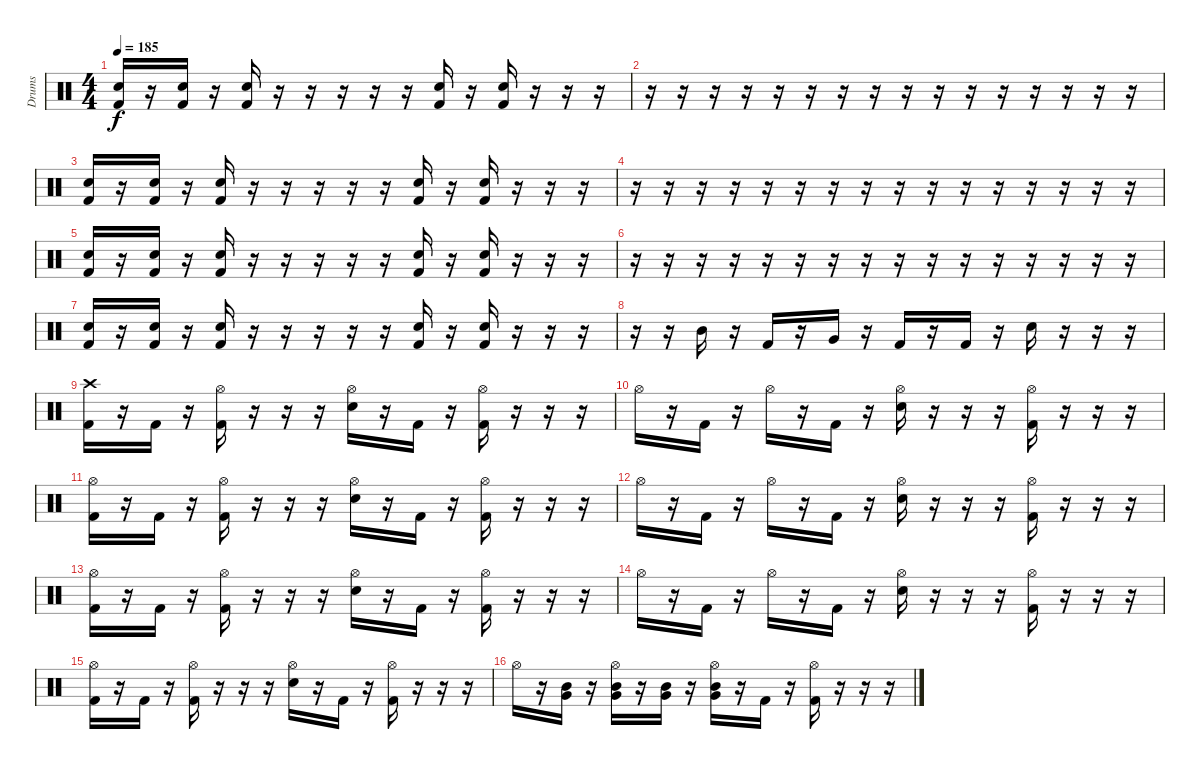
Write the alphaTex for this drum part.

\track ("Drums" "Drums") {instrument percussion}
\staff {score}
\articulation defaults
\ts (4 4)
\tempo 185
\clef neutral
\ks c
("Kick (hit) 2" "Electric Snare (hit)").16{dy f} r.16 ("Kick (hit) 2" "Electric Snare (hit)").16 r.16 ("Kick (hit) 2" "Electric Snare (hit)").16 r.16 r.16 r.16 r.16 r.16 ("Kick (hit) 2" "Electric Snare (hit)").16 r.16 ("Kick (hit) 2" "Electric Snare (hit)").16 r.16 r.16 r.16 |
r.16 r.16 r.16 r.16 r.16 r.16 r.16 r.16 r.16 r.16 r.16 r.16 r.16 r.16 r.16 r.16 |
("Kick (hit) 2" "Electric Snare (hit)").16 r.16 ("Kick (hit) 2" "Electric Snare (hit)").16 r.16 ("Kick (hit) 2" "Electric Snare (hit)").16 r.16 r.16 r.16 r.16 r.16 ("Kick (hit) 2" "Electric Snare (hit)").16 r.16 ("Kick (hit) 2" "Electric Snare (hit)").16 r.16 r.16 r.16 |
r.16 r.16 r.16 r.16 r.16 r.16 r.16 r.16 r.16 r.16 r.16 r.16 r.16 r.16 r.16 r.16 |
("Kick (hit) 2" "Electric Snare (hit)").16 r.16 ("Kick (hit) 2" "Electric Snare (hit)").16 r.16 ("Kick (hit) 2" "Electric Snare (hit)").16 r.16 r.16 r.16 r.16 r.16 ("Kick (hit) 2" "Electric Snare (hit)").16 r.16 ("Kick (hit) 2" "Electric Snare (hit)").16 r.16 r.16 r.16 |
r.16 r.16 r.16 r.16 r.16 r.16 r.16 r.16 r.16 r.16 r.16 r.16 r.16 r.16 r.16 r.16 |
("Kick (hit) 2" "Electric Snare (hit)").16 r.16 ("Kick (hit) 2" "Electric Snare (hit)").16 r.16 ("Kick (hit) 2" "Electric Snare (hit)").16 r.16 r.16 r.16 r.16 r.16 ("Kick (hit) 2" "Electric Snare (hit)").16 r.16 ("Kick (hit) 2" "Electric Snare (hit)").16 r.16 r.16 r.16 |
r.16 r.16 "Mid Tom (hit)".16 r.16 "Kick (hit) 2".16 r.16 "Very Low Tom (hit)".16 r.16 "Kick (hit) 2".16 r.16 "Kick (hit) 2".16 r.16 "Electric Snare (hit)".16 r.16 r.16 r.16 |
("Kick (hit) 2" "Crash high (hit)").16 r.16 "Kick (hit) 2".16 r.16 ("Kick (hit) 2" "Hi-Hat (open)").16 r.16 r.16 r.16 ("Electric Snare (hit)" "Hi-Hat (open)").16 r.16 "Kick (hit) 2".16 r.16 ("Kick (hit) 2" "Hi-Hat (open)").16 r.16 r.16 r.16 |
"Hi-Hat (open)".16 r.16 "Kick (hit) 2".16 r.16 "Hi-Hat (open)".16 r.16 "Kick (hit) 2".16 r.16 ("Electric Snare (hit)" "Hi-Hat (open)").16 r.16 r.16 r.16 ("Kick (hit) 2" "Hi-Hat (open)").16 r.16 r.16 r.16 |
("Kick (hit) 2" "Hi-Hat (open)").16 r.16 "Kick (hit) 2".16 r.16 ("Kick (hit) 2" "Hi-Hat (open)").16 r.16 r.16 r.16 ("Electric Snare (hit)" "Hi-Hat (open)").16 r.16 "Kick (hit) 2".16 r.16 ("Kick (hit) 2" "Hi-Hat (open)").16 r.16 r.16 r.16 |
"Hi-Hat (open)".16 r.16 "Kick (hit) 2".16 r.16 "Hi-Hat (open)".16 r.16 "Kick (hit) 2".16 r.16 ("Electric Snare (hit)" "Hi-Hat (open)").16 r.16 r.16 r.16 ("Kick (hit) 2" "Hi-Hat (open)").16 r.16 r.16 r.16 |
("Kick (hit) 2" "Hi-Hat (open)").16 r.16 "Kick (hit) 2".16 r.16 ("Kick (hit) 2" "Hi-Hat (open)").16 r.16 r.16 r.16 ("Electric Snare (hit)" "Hi-Hat (open)").16 r.16 "Kick (hit) 2".16 r.16 ("Kick (hit) 2" "Hi-Hat (open)").16 r.16 r.16 r.16 |
"Hi-Hat (open)".16 r.16 "Kick (hit) 2".16 r.16 "Hi-Hat (open)".16 r.16 "Kick (hit) 2".16 r.16 ("Electric Snare (hit)" "Hi-Hat (open)").16 r.16 r.16 r.16 ("Kick (hit) 2" "Hi-Hat (open)").16 r.16 r.16 r.16 |
("Kick (hit) 2" "Hi-Hat (open)").16 r.16 "Kick (hit) 2".16 r.16 ("Kick (hit) 2" "Hi-Hat (open)").16 r.16 r.16 r.16 ("Electric Snare (hit)" "Hi-Hat (open)").16 r.16 "Kick (hit) 2".16 r.16 ("Kick (hit) 2" "Hi-Hat (open)").16 r.16 r.16 r.16 |
"Hi-Hat (open)".16 r.16 ("Mid Tom (hit)" "Very Low Tom (hit)").16 r.16 ("Mid Tom (hit)" "Very Low Tom (hit)" "Hi-Hat (open)").16 r.16 ("Mid Tom (hit)" "Very Low Tom (hit)").16 r.16 ("Mid Tom (hit)" "Very Low Tom (hit)" "Hi-Hat (open)").16 r.16 "Kick (hit) 2".16 r.16 ("Kick (hit) 2" "Hi-Hat (open)").16 r.16 r.16 r.16
